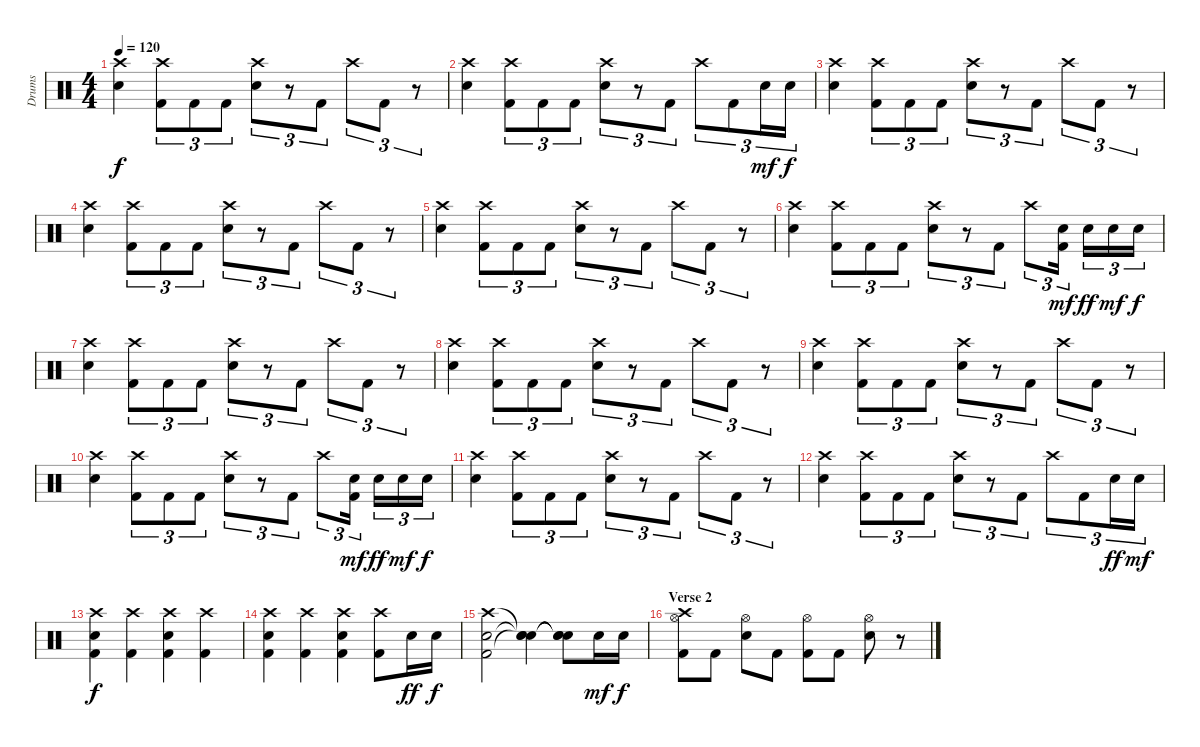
\track ("Drums" "Drums") {instrument percussion}
\staff {score}
\articulation defaults
\ts (4 4)
\tempo 120
\clef neutral
\ks c
("Crash high (hit)" "Electric Snare (hit)").4{dy f} ("Crash high (hit)" "Kick (hit) 2").8{tu (3 2)} "Kick (hit) 2".8{tu (3 2)} "Kick (hit) 2".8{tu (3 2)} ("Crash high (hit)" "Electric Snare (hit)").8{tu (3 2)} r.8{tu (3 2)} "Kick (hit) 2".8{tu (3 2)} "Crash high (hit)".8{tu (3 2)} "Kick (hit) 2".8{tu (3 2)} r.8{tu (3 2)} |
("Crash high (hit)" "Electric Snare (hit)").4 ("Crash high (hit)" "Kick (hit) 2").8{tu (3 2)} "Kick (hit) 2".8{tu (3 2)} "Kick (hit) 2".8{tu (3 2)} ("Crash high (hit)" "Electric Snare (hit)").8{tu (3 2)} r.8{tu (3 2)} "Kick (hit) 2".8{tu (3 2)} "Crash high (hit)".8{tu (3 2)} "Kick (hit) 2".8{tu (3 2)} "Electric Snare (hit)".16{tu (3 2) dy mf} "Electric Snare (hit)".16{tu (3 2) dy f} |
("Crash high (hit)" "Electric Snare (hit)").4 ("Crash high (hit)" "Kick (hit) 2").8{tu (3 2)} "Kick (hit) 2".8{tu (3 2)} "Kick (hit) 2".8{tu (3 2)} ("Crash high (hit)" "Electric Snare (hit)").8{tu (3 2)} r.8{tu (3 2)} "Kick (hit) 2".8{tu (3 2)} "Crash high (hit)".8{tu (3 2)} "Kick (hit) 2".8{tu (3 2)} r.8{tu (3 2)} |
("Crash high (hit)" "Electric Snare (hit)").4 ("Crash high (hit)" "Kick (hit) 2").8{tu (3 2)} "Kick (hit) 2".8{tu (3 2)} "Kick (hit) 2".8{tu (3 2)} ("Crash high (hit)" "Electric Snare (hit)").8{tu (3 2)} r.8{tu (3 2)} "Kick (hit) 2".8{tu (3 2)} "Crash high (hit)".8{tu (3 2)} "Kick (hit) 2".8{tu (3 2)} r.8{tu (3 2)} |
("Crash high (hit)" "Electric Snare (hit)").4 ("Crash high (hit)" "Kick (hit) 2").8{tu (3 2)} "Kick (hit) 2".8{tu (3 2)} "Kick (hit) 2".8{tu (3 2)} ("Crash high (hit)" "Electric Snare (hit)").8{tu (3 2)} r.8{tu (3 2)} "Kick (hit) 2".8{tu (3 2)} "Crash high (hit)".8{tu (3 2)} "Kick (hit) 2".8{tu (3 2)} r.8{tu (3 2)} |
("Crash high (hit)" "Electric Snare (hit)").4 ("Crash high (hit)" "Kick (hit) 2").8{tu (3 2)} "Kick (hit) 2".8{tu (3 2)} "Kick (hit) 2".8{tu (3 2)} ("Crash high (hit)" "Electric Snare (hit)").8{tu (3 2)} r.8{tu (3 2)} "Kick (hit) 2".8{tu (3 2)} "Crash high (hit)".8{tu (3 2)} ("Electric Snare (hit)" "Kick (hit) 2").16{tu (3 2) dy mf} "Electric Snare (hit)".16{tu (3 2) dy ff} "Electric Snare (hit)".16{tu (3 2) dy mf} "Electric Snare (hit)".16{tu (3 2) dy f} |
("Crash high (hit)" "Electric Snare (hit)").4 ("Crash high (hit)" "Kick (hit) 2").8{tu (3 2)} "Kick (hit) 2".8{tu (3 2)} "Kick (hit) 2".8{tu (3 2)} ("Crash high (hit)" "Electric Snare (hit)").8{tu (3 2)} r.8{tu (3 2)} "Kick (hit) 2".8{tu (3 2)} "Crash high (hit)".8{tu (3 2)} "Kick (hit) 2".8{tu (3 2)} r.8{tu (3 2)} |
("Crash high (hit)" "Electric Snare (hit)").4 ("Crash high (hit)" "Kick (hit) 2").8{tu (3 2)} "Kick (hit) 2".8{tu (3 2)} "Kick (hit) 2".8{tu (3 2)} ("Crash high (hit)" "Electric Snare (hit)").8{tu (3 2)} r.8{tu (3 2)} "Kick (hit) 2".8{tu (3 2)} "Crash high (hit)".8{tu (3 2)} "Kick (hit) 2".8{tu (3 2)} r.8{tu (3 2)} |
("Crash high (hit)" "Electric Snare (hit)").4 ("Crash high (hit)" "Kick (hit) 2").8{tu (3 2)} "Kick (hit) 2".8{tu (3 2)} "Kick (hit) 2".8{tu (3 2)} ("Crash high (hit)" "Electric Snare (hit)").8{tu (3 2)} r.8{tu (3 2)} "Kick (hit) 2".8{tu (3 2)} "Crash high (hit)".8{tu (3 2)} "Kick (hit) 2".8{tu (3 2)} r.8{tu (3 2)} |
("Crash high (hit)" "Electric Snare (hit)").4 ("Crash high (hit)" "Kick (hit) 2").8{tu (3 2)} "Kick (hit) 2".8{tu (3 2)} "Kick (hit) 2".8{tu (3 2)} ("Crash high (hit)" "Electric Snare (hit)").8{tu (3 2)} r.8{tu (3 2)} "Kick (hit) 2".8{tu (3 2)} "Crash high (hit)".8{tu (3 2)} ("Electric Snare (hit)" "Kick (hit) 2").16{tu (3 2) dy mf} "Electric Snare (hit)".16{tu (3 2) dy ff} "Electric Snare (hit)".16{tu (3 2) dy mf} "Electric Snare (hit)".16{tu (3 2) dy f} |
("Crash high (hit)" "Electric Snare (hit)").4 ("Crash high (hit)" "Kick (hit) 2").8{tu (3 2)} "Kick (hit) 2".8{tu (3 2)} "Kick (hit) 2".8{tu (3 2)} ("Crash high (hit)" "Electric Snare (hit)").8{tu (3 2)} r.8{tu (3 2)} "Kick (hit) 2".8{tu (3 2)} "Crash high (hit)".8{tu (3 2)} "Kick (hit) 2".8{tu (3 2)} r.8{tu (3 2)} |
("Crash high (hit)" "Electric Snare (hit)").4 ("Crash high (hit)" "Kick (hit) 2").8{tu (3 2)} "Kick (hit) 2".8{tu (3 2)} "Kick (hit) 2".8{tu (3 2)} ("Crash high (hit)" "Electric Snare (hit)").8{tu (3 2)} r.8{tu (3 2)} "Kick (hit) 2".8{tu (3 2)} "Crash high (hit)".8{tu (3 2)} "Kick (hit) 2".8{tu (3 2)} "Electric Snare (hit)".16{tu (3 2) dy ff} "Electric Snare (hit)".16{tu (3 2) dy mf} |
("Crash high (hit)" "Electric Snare (hit)" "Kick (hit) 2").4{dy f} ("Crash high (hit)" "Kick (hit) 2").4 ("Crash high (hit)" "Electric Snare (hit)" "Kick (hit) 2").4 ("Crash high (hit)" "Kick (hit) 2").4 |
("Crash high (hit)" "Electric Snare (hit)" "Kick (hit) 2").4 ("Crash high (hit)" "Kick (hit) 2").4 ("Crash high (hit)" "Electric Snare (hit)" "Kick (hit) 2").4 ("Crash high (hit)" "Kick (hit) 2").8 "Electric Snare (hit)".16{dy ff} "Electric Snare (hit)".16{dy f} |
("Crash high (hit)" "Electric Snare (hit)" "Kick (hit) 2").2 ("Snare (hit)"{t} "Snare (hit)"{t} "Snare (hit)"{t}).4 ("Snare (hit)"{t} "Electric Snare (hit)"{t} "Snare (hit)"{t}).8 "Electric Snare (hit)".16{dy mf} "Electric Snare (hit)".16{dy f} |
\section ("" "Verse 2")
("Hi-Hat (open)" "Crash high (hit)" "Kick (hit) 2").8 "Kick (hit) 2".8 ("Hi-Hat (open)" "Electric Snare (hit)").8 "Kick (hit) 2".8 ("Hi-Hat (open)" "Kick (hit) 2").8 "Kick (hit) 2".8 ("Hi-Hat (open)" "Electric Snare (hit)").8 r.8
